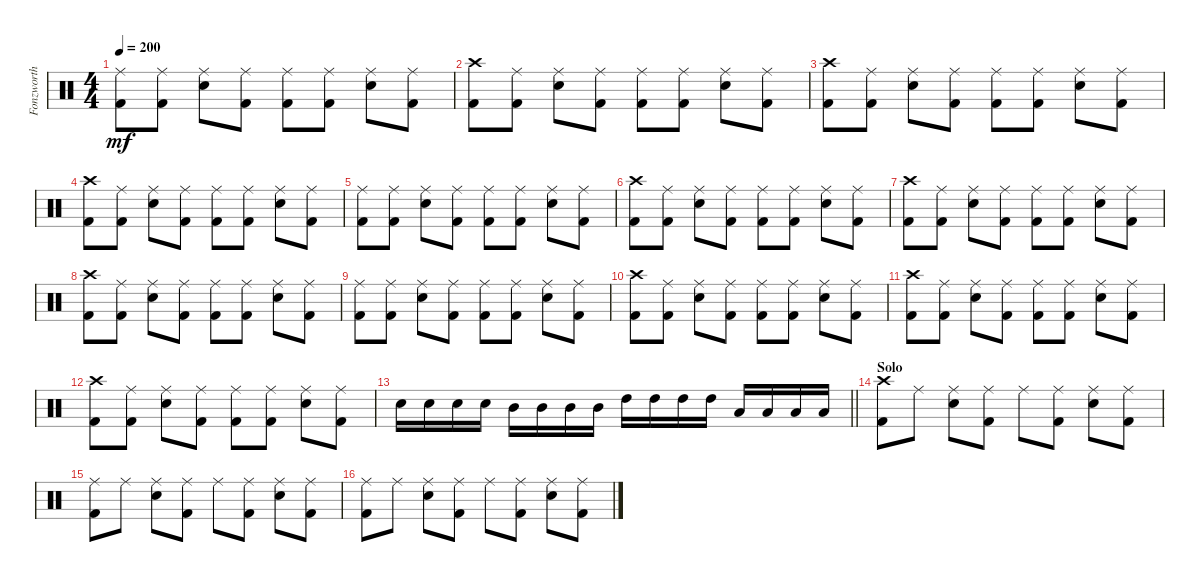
\track ("Fonzworth Fred" "Fonzworth ") {instrument percussion}
\staff {score}
\articulation defaults
\ts (4 4)
\tempo 200
\clef neutral
\ks c
("Ride (middle)" "Kick (hit) 2").8{dy mf} ("Ride (middle)" "Kick (hit) 2").8 ("Ride (middle)" "Snare (hit) 2").8 ("Ride (middle)" "Kick (hit) 2").8 ("Ride (middle)" "Kick (hit) 2").8 ("Ride (middle)" "Kick (hit) 2").8 ("Ride (middle)" "Snare (hit) 2").8 ("Ride (middle)" "Kick (hit) 2").8 |
("Crash high (hit)" "Kick (hit) 2").8 ("Ride (middle)" "Kick (hit) 2").8 ("Ride (middle)" "Snare (hit) 2").8 ("Ride (middle)" "Kick (hit) 2").8 ("Ride (middle)" "Kick (hit) 2").8 ("Ride (middle)" "Kick (hit) 2").8 ("Ride (middle)" "Snare (hit) 2").8 ("Ride (middle)" "Kick (hit) 2").8 |
("Crash high (hit)" "Kick (hit) 2").8 ("Ride (middle)" "Kick (hit) 2").8 ("Ride (middle)" "Snare (hit) 2").8 ("Ride (middle)" "Kick (hit) 2").8 ("Ride (middle)" "Kick (hit) 2").8 ("Ride (middle)" "Kick (hit) 2").8 ("Ride (middle)" "Snare (hit) 2").8 ("Ride (middle)" "Kick (hit) 2").8 |
("Crash high (hit)" "Kick (hit) 2").8 ("Ride (middle)" "Kick (hit) 2").8 ("Ride (middle)" "Snare (hit) 2").8 ("Ride (middle)" "Kick (hit) 2").8 ("Ride (middle)" "Kick (hit) 2").8 ("Ride (middle)" "Kick (hit) 2").8 ("Ride (middle)" "Snare (hit) 2").8 ("Ride (middle)" "Kick (hit) 2").8 |
("Ride (middle)" "Kick (hit) 2").8 ("Ride (middle)" "Kick (hit) 2").8 ("Ride (middle)" "Snare (hit) 2").8 ("Ride (middle)" "Kick (hit) 2").8 ("Ride (middle)" "Kick (hit) 2").8 ("Ride (middle)" "Kick (hit) 2").8 ("Ride (middle)" "Snare (hit) 2").8 ("Ride (middle)" "Kick (hit) 2").8 |
("Crash high (hit)" "Kick (hit) 2").8 ("Ride (middle)" "Kick (hit) 2").8 ("Ride (middle)" "Snare (hit) 2").8 ("Ride (middle)" "Kick (hit) 2").8 ("Ride (middle)" "Kick (hit) 2").8 ("Ride (middle)" "Kick (hit) 2").8 ("Ride (middle)" "Snare (hit) 2").8 ("Ride (middle)" "Kick (hit) 2").8 |
("Crash high (hit)" "Kick (hit) 2").8 ("Ride (middle)" "Kick (hit) 2").8 ("Ride (middle)" "Snare (hit) 2").8 ("Ride (middle)" "Kick (hit) 2").8 ("Ride (middle)" "Kick (hit) 2").8 ("Ride (middle)" "Kick (hit) 2").8 ("Ride (middle)" "Snare (hit) 2").8 ("Ride (middle)" "Kick (hit) 2").8 |
("Crash high (hit)" "Kick (hit) 2").8 ("Ride (middle)" "Kick (hit) 2").8 ("Ride (middle)" "Snare (hit) 2").8 ("Ride (middle)" "Kick (hit) 2").8 ("Ride (middle)" "Kick (hit) 2").8 ("Ride (middle)" "Kick (hit) 2").8 ("Ride (middle)" "Snare (hit) 2").8 ("Ride (middle)" "Kick (hit) 2").8 |
("Ride (middle)" "Kick (hit) 2").8 ("Ride (middle)" "Kick (hit) 2").8 ("Ride (middle)" "Snare (hit) 2").8 ("Ride (middle)" "Kick (hit) 2").8 ("Ride (middle)" "Kick (hit) 2").8 ("Ride (middle)" "Kick (hit) 2").8 ("Ride (middle)" "Snare (hit) 2").8 ("Ride (middle)" "Kick (hit) 2").8 |
("Crash high (hit)" "Kick (hit) 2").8 ("Ride (middle)" "Kick (hit) 2").8 ("Ride (middle)" "Snare (hit) 2").8 ("Ride (middle)" "Kick (hit) 2").8 ("Ride (middle)" "Kick (hit) 2").8 ("Ride (middle)" "Kick (hit) 2").8 ("Ride (middle)" "Snare (hit) 2").8 ("Ride (middle)" "Kick (hit) 2").8 |
("Crash high (hit)" "Kick (hit) 2").8 ("Ride (middle)" "Kick (hit) 2").8 ("Ride (middle)" "Snare (hit) 2").8 ("Ride (middle)" "Kick (hit) 2").8 ("Ride (middle)" "Kick (hit) 2").8 ("Ride (middle)" "Kick (hit) 2").8 ("Ride (middle)" "Snare (hit) 2").8 ("Ride (middle)" "Kick (hit) 2").8 |
("Crash high (hit)" "Kick (hit) 2").8 ("Ride (middle)" "Kick (hit) 2").8 ("Ride (middle)" "Snare (hit) 2").8 ("Ride (middle)" "Kick (hit) 2").8 ("Ride (middle)" "Kick (hit) 2").8 ("Ride (middle)" "Kick (hit) 2").8 ("Ride (middle)" "Snare (hit) 2").8 ("Ride (middle)" "Kick (hit) 2").8 |
\barLineRight lightlight "Snare (hit) 2".16 "Snare (hit) 2".16 "Snare (hit) 2".16 "Snare (hit) 2".16 "Mid Tom (hit)".16 "Mid Tom (hit)".16 "Mid Tom (hit)".16 "Mid Tom (hit)".16 "High Tom (hit)".16 "High Tom (hit)".16 "High Tom (hit)".16 "High Tom (hit)".16 "Low Floor Tom (hit)".16 "Low Floor Tom (hit)".16 "Low Floor Tom (hit)".16 "Low Floor Tom (hit)".16
|
\section ("" "Solo")
("Crash high (hit)" "Kick (hit) 2").8 "Ride (middle)".8 ("Ride (middle)" "Snare (hit) 2").8 ("Ride (middle)" "Kick (hit) 2").8 "Ride (middle)".8 ("Ride (middle)" "Kick (hit) 2").8 ("Ride (middle)" "Snare (hit) 2").8 ("Ride (middle)" "Kick (hit) 2").8 |
("Ride (middle)" "Kick (hit) 2").8 "Ride (middle)".8 ("Ride (middle)" "Snare (hit) 2").8 ("Ride (middle)" "Kick (hit) 2").8 "Ride (middle)".8 ("Ride (middle)" "Kick (hit) 2").8 ("Ride (middle)" "Snare (hit) 2").8 ("Ride (middle)" "Kick (hit) 2").8 |
("Ride (middle)" "Kick (hit) 2").8 "Ride (middle)".8 ("Ride (middle)" "Snare (hit) 2").8 ("Ride (middle)" "Kick (hit) 2").8 "Ride (middle)".8 ("Ride (middle)" "Kick (hit) 2").8 ("Ride (middle)" "Snare (hit) 2").8 ("Ride (middle)" "Kick (hit) 2").8
